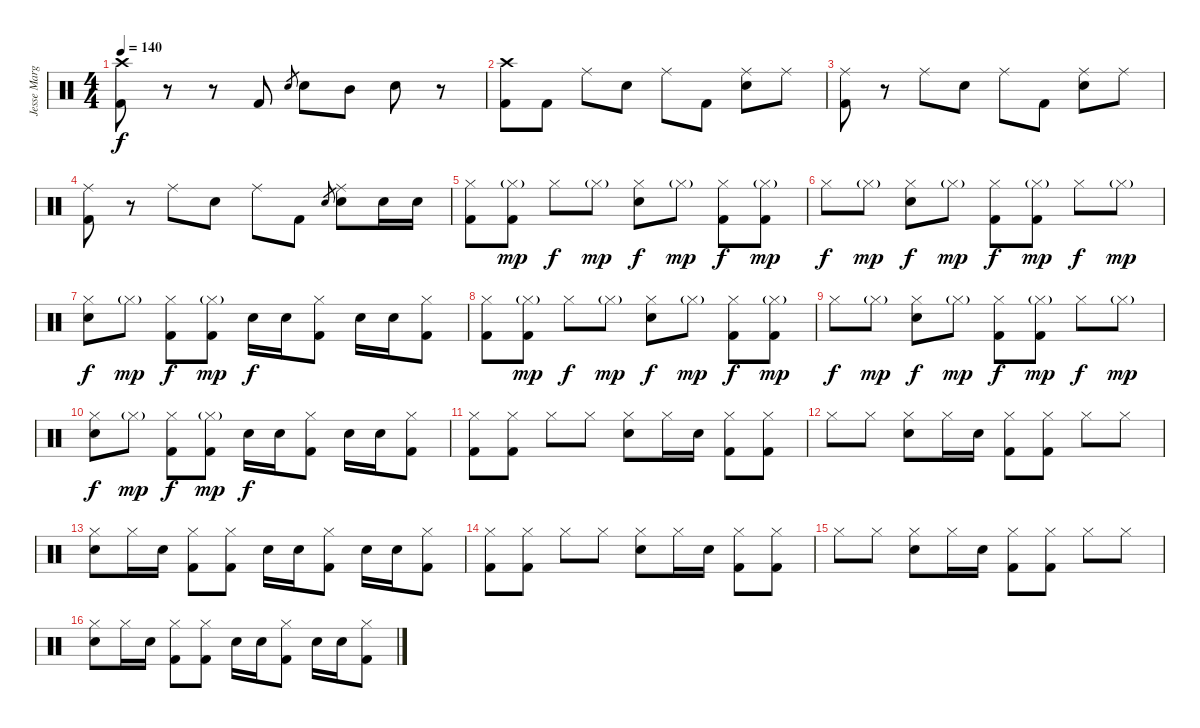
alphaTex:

\track ("Jesse Margera" "Jesse Marg") {instrument percussion}
\staff {score}
\articulation defaults
\ts (4 4)
\tempo 140
\clef neutral
\ks c
("Crash high (hit)" "Kick (hit) 2").8{dy f} r.8 r.8 "Kick (hit) 2".8 "Electric Snare (hit)".8{gr} "Electric Snare (hit)".8 "Mid Tom (hit)".8 "Electric Snare (hit)".8 r.8 |
("Crash high (hit)" "Kick (hit) 2").8 "Kick (hit) 2".8 "Ride (middle)".8 "Electric Snare (hit)".8 "Ride (middle)".8 "Kick (hit) 2".8 ("Ride (middle)" "Electric Snare (hit)").8 "Ride (middle)".8 |
("Ride (middle)" "Kick (hit) 2").8 r.8 "Ride (middle)".8 "Electric Snare (hit)".8 "Ride (middle)".8 "Kick (hit) 2".8 ("Ride (middle)" "Electric Snare (hit)").8 "Ride (middle)".8 |
("Ride (middle)" "Kick (hit) 2").8 r.8 "Ride (middle)".8 "Electric Snare (hit)".8 "Ride (middle)".8 "Kick (hit) 2".8 "Electric Snare (hit)".8{gr} ("Ride (middle)" "Electric Snare (hit)").8 "Electric Snare (hit)".16 "Electric Snare (hit)".16 |
("Hi-Hat (closed)" "Kick (hit) 2").8 ("Hi-Hat (closed)"{g} "Kick (hit) 2").8{dy mp} "Hi-Hat (closed)".8{dy f} "Hi-Hat (closed)"{g}.8{dy mp} ("Hi-Hat (closed)" "Electric Snare (hit)").8{dy f} "Hi-Hat (closed)"{g}.8{dy mp} ("Hi-Hat (closed)" "Kick (hit) 2").8{dy f} ("Hi-Hat (closed)"{g} "Kick (hit) 2").8{dy mp} |
"Hi-Hat (closed)".8{dy f} "Hi-Hat (closed)"{g}.8{dy mp} ("Hi-Hat (closed)" "Electric Snare (hit)").8{dy f} "Hi-Hat (closed)"{g}.8{dy mp} ("Hi-Hat (closed)" "Kick (hit) 2").8{dy f} ("Hi-Hat (closed)"{g} "Kick (hit) 2").8{dy mp} "Hi-Hat (closed)".8{dy f} "Hi-Hat (closed)"{g}.8{dy mp} |
("Hi-Hat (closed)" "Electric Snare (hit)").8{dy f} "Hi-Hat (closed)"{g}.8{dy mp} ("Hi-Hat (closed)" "Kick (hit) 2").8{dy f} ("Hi-Hat (closed)"{g} "Kick (hit) 2").8{dy mp} "Electric Snare (hit)".16{dy f} "Electric Snare (hit)".16 ("Hi-Hat (closed)" "Kick (hit) 2").8 "Electric Snare (hit)".16 "Electric Snare (hit)".16 ("Hi-Hat (closed)" "Kick (hit) 2").8 |
("Hi-Hat (closed)" "Kick (hit) 2").8 ("Hi-Hat (closed)"{g} "Kick (hit) 2").8{dy mp} "Hi-Hat (closed)".8{dy f} "Hi-Hat (closed)"{g}.8{dy mp} ("Hi-Hat (closed)" "Electric Snare (hit)").8{dy f} "Hi-Hat (closed)"{g}.8{dy mp} ("Hi-Hat (closed)" "Kick (hit) 2").8{dy f} ("Hi-Hat (closed)"{g} "Kick (hit) 2").8{dy mp} |
"Hi-Hat (closed)".8{dy f} "Hi-Hat (closed)"{g}.8{dy mp} ("Hi-Hat (closed)" "Electric Snare (hit)").8{dy f} "Hi-Hat (closed)"{g}.8{dy mp} ("Hi-Hat (closed)" "Kick (hit) 2").8{dy f} ("Hi-Hat (closed)"{g} "Kick (hit) 2").8{dy mp} "Hi-Hat (closed)".8{dy f} "Hi-Hat (closed)"{g}.8{dy mp} |
("Hi-Hat (closed)" "Electric Snare (hit)").8{dy f} "Hi-Hat (closed)"{g}.8{dy mp} ("Hi-Hat (closed)" "Kick (hit) 2").8{dy f} ("Hi-Hat (closed)"{g} "Kick (hit) 2").8{dy mp} "Electric Snare (hit)".16{dy f} "Electric Snare (hit)".16 ("Hi-Hat (closed)" "Kick (hit) 2").8 "Electric Snare (hit)".16 "Electric Snare (hit)".16 ("Hi-Hat (closed)" "Kick (hit) 2").8 |
("Hi-Hat (closed)" "Kick (hit) 2").8 ("Hi-Hat (closed)" "Kick (hit) 2").8 "Hi-Hat (closed)".8 "Hi-Hat (closed)".8 ("Hi-Hat (closed)" "Electric Snare (hit)").8 "Hi-Hat (closed)".16 "Electric Snare (hit)".16 ("Hi-Hat (closed)" "Kick (hit) 2").8 ("Hi-Hat (closed)" "Kick (hit) 2").8 |
"Hi-Hat (closed)".8 "Hi-Hat (closed)".8 ("Hi-Hat (closed)" "Electric Snare (hit)").8 "Hi-Hat (closed)".16 "Electric Snare (hit)".16 ("Hi-Hat (closed)" "Kick (hit) 2").8 ("Hi-Hat (closed)" "Kick (hit) 2").8 "Hi-Hat (closed)".8 "Hi-Hat (closed)".8 |
("Hi-Hat (closed)" "Electric Snare (hit)").8 "Hi-Hat (closed)".16 "Electric Snare (hit)".16 ("Hi-Hat (closed)" "Kick (hit) 2").8 ("Hi-Hat (closed)" "Kick (hit) 2").8 "Electric Snare (hit)".16 "Electric Snare (hit)".16 ("Hi-Hat (closed)" "Kick (hit) 2").8 "Electric Snare (hit)".16 "Electric Snare (hit)".16 ("Hi-Hat (closed)" "Kick (hit) 2").8 |
("Hi-Hat (closed)" "Kick (hit) 2").8 ("Hi-Hat (closed)" "Kick (hit) 2").8 "Hi-Hat (closed)".8 "Hi-Hat (closed)".8 ("Hi-Hat (closed)" "Electric Snare (hit)").8 "Hi-Hat (closed)".16 "Electric Snare (hit)".16 ("Hi-Hat (closed)" "Kick (hit) 2").8 ("Hi-Hat (closed)" "Kick (hit) 2").8 |
"Hi-Hat (closed)".8 "Hi-Hat (closed)".8 ("Hi-Hat (closed)" "Electric Snare (hit)").8 "Hi-Hat (closed)".16 "Electric Snare (hit)".16 ("Hi-Hat (closed)" "Kick (hit) 2").8 ("Hi-Hat (closed)" "Kick (hit) 2").8 "Hi-Hat (closed)".8 "Hi-Hat (closed)".8 |
("Hi-Hat (closed)" "Electric Snare (hit)").8 "Hi-Hat (closed)".16 "Electric Snare (hit)".16 ("Hi-Hat (closed)" "Kick (hit) 2").8 ("Hi-Hat (closed)" "Kick (hit) 2").8 "Electric Snare (hit)".16 "Electric Snare (hit)".16 ("Hi-Hat (closed)" "Kick (hit) 2").8 "Electric Snare (hit)".16 "Electric Snare (hit)".16 ("Hi-Hat (closed)" "Kick (hit) 2").8
